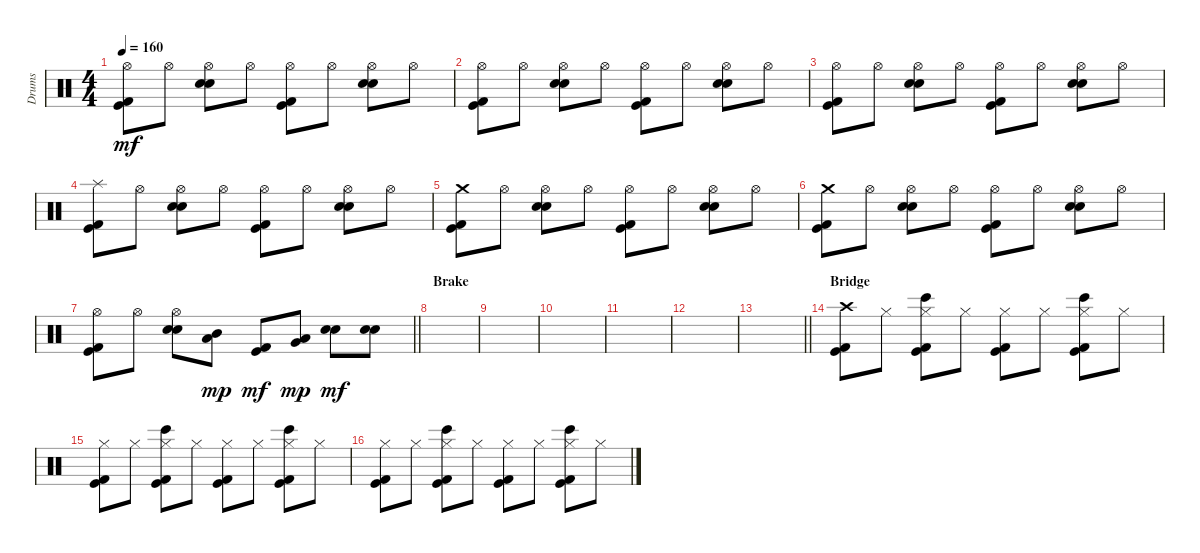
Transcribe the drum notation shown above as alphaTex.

\track ("Drums" "Drums") {instrument percussion}
\staff {score}
\articulation defaults
\ts (4 4)
\tempo 160
\clef neutral
\ks c
("Hi-Hat (open)" "Kick (hit) 2" "Kick (hit)").8{dy mf} "Hi-Hat (open)".8 ("Hi-Hat (open)" "Snare (hit) 2" "Electric Snare (hit)").8 "Hi-Hat (open)".8 ("Hi-Hat (open)" "Kick (hit) 2" "Kick (hit)").8 "Hi-Hat (open)".8 ("Hi-Hat (open)" "Snare (hit) 2" "Electric Snare (hit)").8 "Hi-Hat (open)".8 |
("Hi-Hat (open)" "Kick (hit) 2" "Kick (hit)").8 "Hi-Hat (open)".8 ("Hi-Hat (open)" "Snare (hit) 2" "Electric Snare (hit)").8 "Hi-Hat (open)".8 ("Hi-Hat (open)" "Kick (hit) 2" "Kick (hit)").8 "Hi-Hat (open)".8 ("Hi-Hat (open)" "Snare (hit) 2" "Electric Snare (hit)").8 "Hi-Hat (open)".8 |
("Hi-Hat (open)" "Kick (hit) 2" "Kick (hit)").8 "Hi-Hat (open)".8 ("Hi-Hat (open)" "Snare (hit) 2" "Electric Snare (hit)").8 "Hi-Hat (open)".8 ("Hi-Hat (open)" "Kick (hit) 2" "Kick (hit)").8 "Hi-Hat (open)".8 ("Hi-Hat (open)" "Snare (hit) 2" "Electric Snare (hit)").8 "Hi-Hat (open)".8 |
("Splash (hit)" "Kick (hit) 2" "Kick (hit)").8 "Hi-Hat (open)".8 ("Hi-Hat (open)" "Snare (hit) 2" "Electric Snare (hit)").8 "Hi-Hat (open)".8 ("Hi-Hat (open)" "Kick (hit) 2" "Kick (hit)").8 "Hi-Hat (open)".8 ("Hi-Hat (open)" "Snare (hit) 2" "Electric Snare (hit)").8 "Hi-Hat (open)".8 |
("Crash medium (hit)" "Kick (hit) 2" "Kick (hit)").8 "Hi-Hat (open)".8 ("Hi-Hat (open)" "Snare (hit) 2" "Electric Snare (hit)").8 "Hi-Hat (open)".8 ("Hi-Hat (open)" "Kick (hit) 2" "Kick (hit)").8 "Hi-Hat (open)".8 ("Hi-Hat (open)" "Snare (hit) 2" "Electric Snare (hit)").8 "Hi-Hat (open)".8 |
("Crash medium (hit)" "Kick (hit) 2" "Kick (hit)").8 "Hi-Hat (open)".8 ("Hi-Hat (open)" "Snare (hit) 2" "Electric Snare (hit)").8 "Hi-Hat (open)".8 ("Hi-Hat (open)" "Kick (hit) 2" "Kick (hit)").8 "Hi-Hat (open)".8 ("Hi-Hat (open)" "Snare (hit) 2" "Electric Snare (hit)").8 "Hi-Hat (open)".8 |
\barLineRight lightlight
("Hi-Hat (open)" "Kick (hit) 2" "Kick (hit)").8 "Hi-Hat (open)".8 ("Hi-Hat (open)" "Snare (hit) 2" "Electric Snare (hit)").8 ("Mid Tom (hit)" "Low Tom (hit)").8{dy mp} ("Kick (hit) 2" "Kick (hit)").8{dy mf} ("Low Tom (hit)" "Very Low Tom (hit)").8{dy mp} ("Snare (hit) 2" "Electric Snare (hit)").8{dy mf} ("Snare (hit) 2" "Electric Snare (hit)").8 |
\section ("" "Brake")
|
|
|
|
|
\barLineRight lightlight
|
\section ("" "Bridge")
("Crash high (hit)" "Kick (hit) 2" "Kick (hit)").8 "Hi-Hat (closed)".8 ("Hi-Hat (closed)" "Bongo High (hit)" "Kick (hit) 2" "Kick (hit)").8 "Hi-Hat (closed)".8 ("Hi-Hat (closed)" "Kick (hit) 2" "Kick (hit)").8 "Hi-Hat (closed)".8 ("Hi-Hat (closed)" "Bongo High (hit)" "Kick (hit) 2" "Kick (hit)").8 "Hi-Hat (closed)".8 |
("Hi-Hat (closed)" "Kick (hit) 2" "Kick (hit)").8 "Hi-Hat (closed)".8 ("Hi-Hat (closed)" "Bongo High (hit)" "Kick (hit) 2" "Kick (hit)").8 "Hi-Hat (closed)".8 ("Hi-Hat (closed)" "Kick (hit) 2" "Kick (hit)").8 "Hi-Hat (closed)".8 ("Hi-Hat (closed)" "Bongo High (hit)" "Kick (hit) 2" "Kick (hit)").8 "Hi-Hat (closed)".8 |
("Hi-Hat (closed)" "Kick (hit) 2" "Kick (hit)").8 "Hi-Hat (closed)".8 ("Hi-Hat (closed)" "Bongo High (hit)" "Kick (hit) 2" "Kick (hit)").8 "Hi-Hat (closed)".8 ("Hi-Hat (closed)" "Kick (hit) 2" "Kick (hit)").8 "Hi-Hat (closed)".8 ("Hi-Hat (closed)" "Bongo High (hit)" "Kick (hit) 2" "Kick (hit)").8 "Hi-Hat (closed)".8
